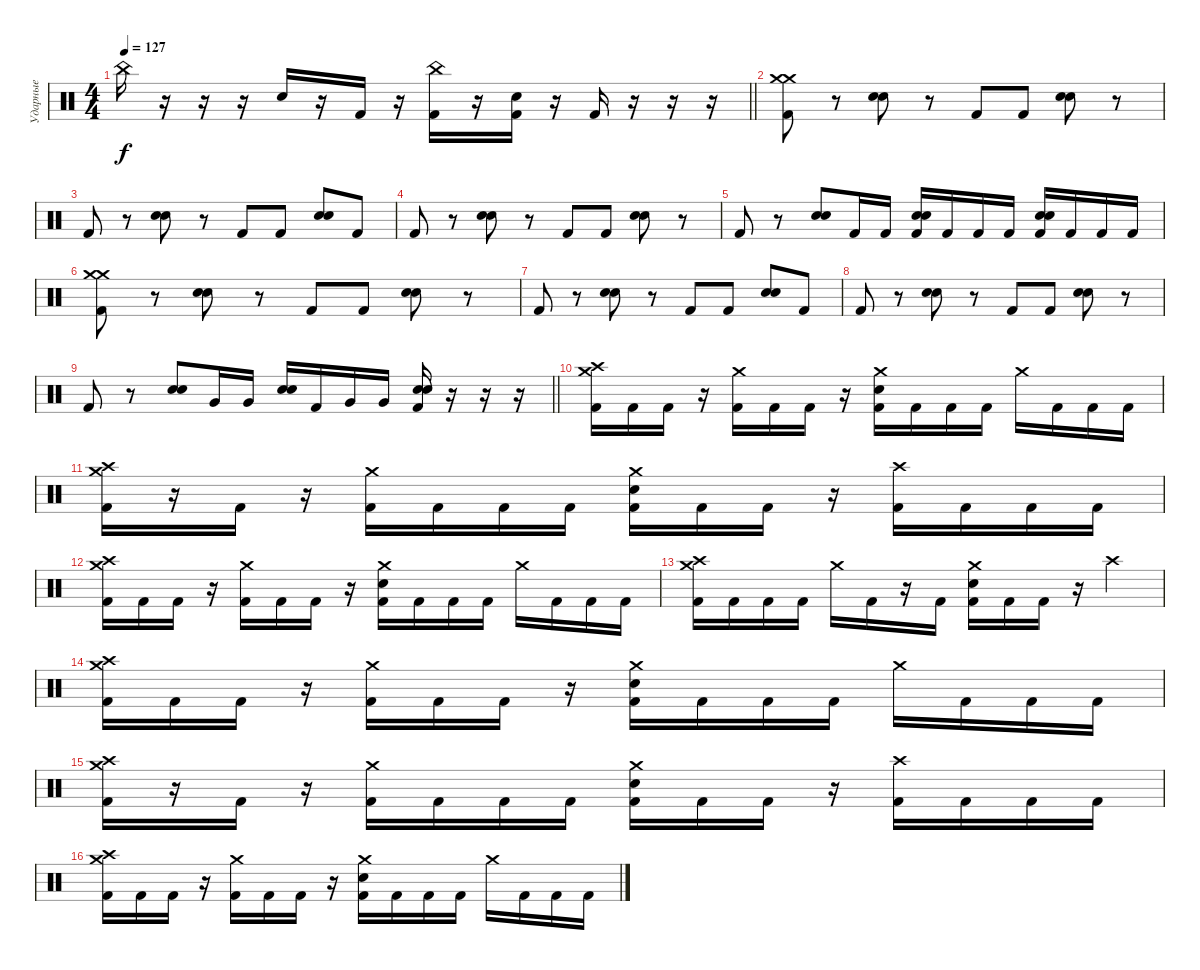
\track ("Ударные" "Ударные") {instrument percussion}
\staff {score}
\articulation defaults
\ts (4 4)
\tempo 127
\clef neutral
\barLineRight lightlight
\ks c "China (hit)".16{dy f}
r.16 r.16 r.16 "Electric Snare (hit)".16 r.16 "Kick (hit) 2".16 r.16 ("China (hit)" "Kick (hit) 2").16 r.16 ("Electric Snare (hit)" "Kick (hit) 2").16 r.16 "Kick (hit) 2".16 r.16 r.16 r.16 |
\section ("" "")
("Crash medium (hit)" "Crash medium (hit)" "Kick (hit) 2").8 r.8 ("Electric Snare (hit)" "Electric Snare (hit)").8 r.8 "Kick (hit) 2".8 "Kick (hit) 2".8 ("Electric Snare (hit)" "Electric Snare (hit)").8 r.8 |
"Kick (hit) 2".8 r.8 ("Electric Snare (hit)" "Electric Snare (hit)").8 r.8 "Kick (hit) 2".8 "Kick (hit) 2".8 ("Electric Snare (hit)" "Electric Snare (hit)").8 "Kick (hit) 2".8 |
"Kick (hit) 2".8 r.8 ("Electric Snare (hit)" "Electric Snare (hit)").8 r.8 "Kick (hit) 2".8 "Kick (hit) 2".8 ("Electric Snare (hit)" "Electric Snare (hit)").8 r.8 |
"Kick (hit) 2".8 r.8 ("Electric Snare (hit)" "Electric Snare (hit)").8 "Kick (hit) 2".16 "Kick (hit) 2".16 ("Electric Snare (hit)" "Electric Snare (hit)" "Kick (hit) 2").16 "Kick (hit) 2".16 "Kick (hit) 2".16 "Kick (hit) 2".16 ("Electric Snare (hit)" "Electric Snare (hit)" "Kick (hit) 2").16 "Kick (hit) 2".16 "Kick (hit) 2".16 "Kick (hit) 2".16 |
("Crash medium (hit)" "Crash medium (hit)" "Kick (hit) 2").8 r.8 ("Electric Snare (hit)" "Electric Snare (hit)").8 r.8 "Kick (hit) 2".8 "Kick (hit) 2".8 ("Electric Snare (hit)" "Electric Snare (hit)").8 r.8 |
"Kick (hit) 2".8 r.8 ("Electric Snare (hit)" "Electric Snare (hit)").8 r.8 "Kick (hit) 2".8 "Kick (hit) 2".8 ("Electric Snare (hit)" "Electric Snare (hit)").8 "Kick (hit) 2".8 |
"Kick (hit) 2".8 r.8 ("Electric Snare (hit)" "Electric Snare (hit)").8 r.8 "Kick (hit) 2".8 "Kick (hit) 2".8 ("Electric Snare (hit)" "Electric Snare (hit)").8 r.8 |
\barLineRight lightlight "Kick (hit) 2".8
r.8 ("Electric Snare (hit)" "Electric Snare (hit)").8 "Very Low Tom (hit)".16 "Very Low Tom (hit)".16 ("Electric Snare (hit)" "Electric Snare (hit)").16 "Kick (hit) 2".16 "Very Low Tom (hit)".16 "Very Low Tom (hit)".16 ("Electric Snare (hit)" "Electric Snare (hit)" "Kick (hit) 2").16 r.16 r.16 r.16 |
\section ("" "")
("Crash medium (hit)" "Crash high (hit)" "Kick (hit) 2").16 "Kick (hit) 2".16 "Kick (hit) 2".16 r.16 ("Crash medium (hit)" "Kick (hit) 2").16 "Kick (hit) 2".16 "Kick (hit) 2".16 r.16 ("Crash medium (hit)" "Electric Snare (hit)" "Kick (hit) 2").16 "Kick (hit) 2".16 "Kick (hit) 2".16 "Kick (hit) 2".16 "Crash medium (hit)".16 "Kick (hit) 2".16 "Kick (hit) 2".16 "Kick (hit) 2".16 |
("Crash medium (hit)" "Crash high (hit)" "Kick (hit) 2").16 r.16 "Kick (hit) 2".16 r.16 ("Crash medium (hit)" "Kick (hit) 2").16 "Kick (hit) 2".16 "Kick (hit) 2".16 "Kick (hit) 2".16 ("Crash medium (hit)" "Electric Snare (hit)" "Kick (hit) 2").16 "Kick (hit) 2".16 "Kick (hit) 2".16 r.16 ("Crash high (hit)" "Kick (hit) 2").16 "Kick (hit) 2".16 "Kick (hit) 2".16 "Kick (hit) 2".16 |
("Crash medium (hit)" "Crash high (hit)" "Kick (hit) 2").16 "Kick (hit) 2".16 "Kick (hit) 2".16 r.16 ("Crash medium (hit)" "Kick (hit) 2").16 "Kick (hit) 2".16 "Kick (hit) 2".16 r.16 ("Crash medium (hit)" "Electric Snare (hit)" "Kick (hit) 2").16 "Kick (hit) 2".16 "Kick (hit) 2".16 "Kick (hit) 2".16 "Crash medium (hit)".16 "Kick (hit) 2".16 "Kick (hit) 2".16 "Kick (hit) 2".16 |
("Crash medium (hit)" "Crash high (hit)" "Kick (hit) 2").16 "Kick (hit) 2".16 "Kick (hit) 2".16 "Kick (hit) 2".16 "Crash medium (hit)".16 "Kick (hit) 2".16 r.16 "Kick (hit) 2".16 ("Crash medium (hit)" "Electric Snare (hit)" "Kick (hit) 2").16 "Kick (hit) 2".16 "Kick (hit) 2".16 r.16 "Crash high (hit)".4 |
("Crash medium (hit)" "Crash high (hit)" "Kick (hit) 2").16 "Kick (hit) 2".16 "Kick (hit) 2".16 r.16 ("Crash medium (hit)" "Kick (hit) 2").16 "Kick (hit) 2".16 "Kick (hit) 2".16 r.16 ("Crash medium (hit)" "Electric Snare (hit)" "Kick (hit) 2").16 "Kick (hit) 2".16 "Kick (hit) 2".16 "Kick (hit) 2".16 "Crash medium (hit)".16 "Kick (hit) 2".16 "Kick (hit) 2".16 "Kick (hit) 2".16 |
("Crash medium (hit)" "Crash high (hit)" "Kick (hit) 2").16 r.16 "Kick (hit) 2".16 r.16 ("Crash medium (hit)" "Kick (hit) 2").16 "Kick (hit) 2".16 "Kick (hit) 2".16 "Kick (hit) 2".16 ("Crash medium (hit)" "Electric Snare (hit)" "Kick (hit) 2").16 "Kick (hit) 2".16 "Kick (hit) 2".16 r.16 ("Crash high (hit)" "Kick (hit) 2").16 "Kick (hit) 2".16 "Kick (hit) 2".16 "Kick (hit) 2".16 |
("Crash medium (hit)" "Crash high (hit)" "Kick (hit) 2").16 "Kick (hit) 2".16 "Kick (hit) 2".16 r.16 ("Crash medium (hit)" "Kick (hit) 2").16 "Kick (hit) 2".16 "Kick (hit) 2".16 r.16 ("Crash medium (hit)" "Electric Snare (hit)" "Kick (hit) 2").16 "Kick (hit) 2".16 "Kick (hit) 2".16 "Kick (hit) 2".16 "Crash medium (hit)".16 "Kick (hit) 2".16 "Kick (hit) 2".16 "Kick (hit) 2".16
